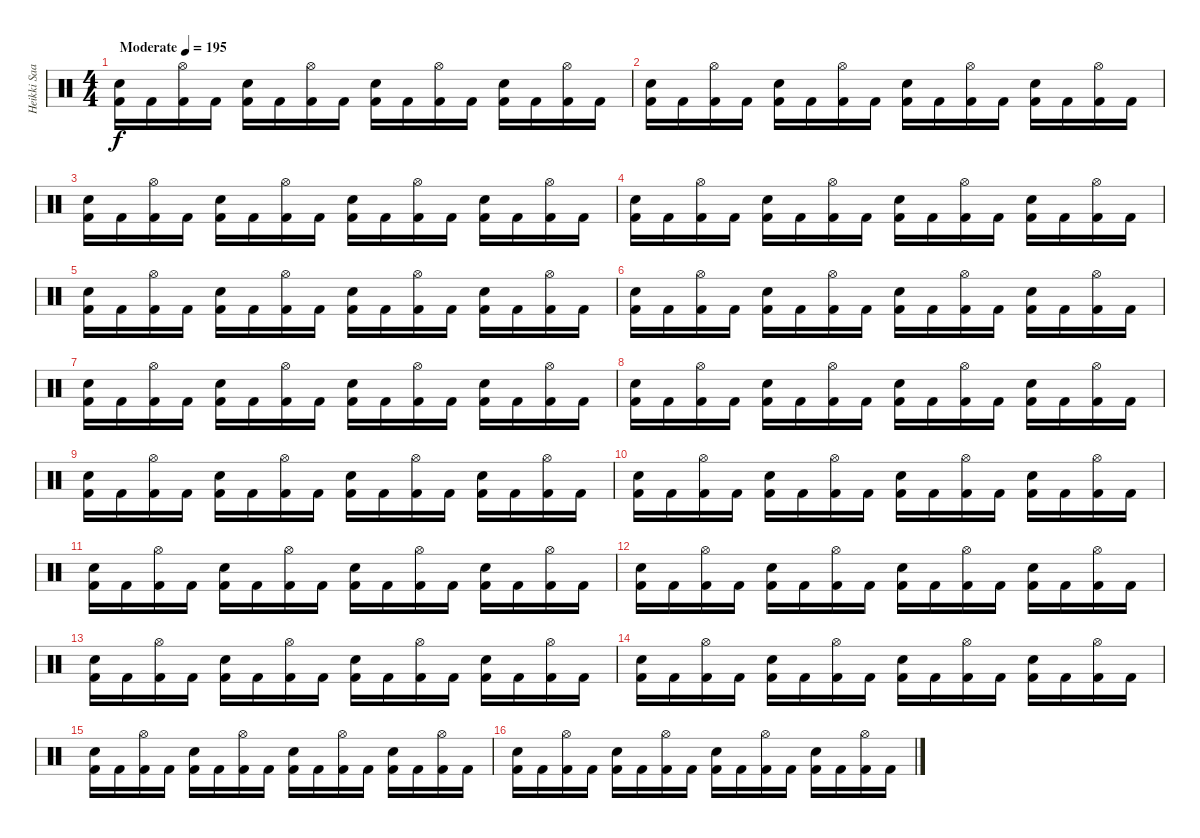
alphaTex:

\track ("Heikki Saari" "Heikki Saa") {instrument percussion}
\staff {score}
\articulation defaults
\ts (4 4)
\tempo (195 "Moderate")
\clef neutral
\ks c
("Snare (hit) 2" "Kick (hit) 2").16{dy f} "Kick (hit) 2".16 ("Hi-Hat (open)" "Kick (hit) 2").16 "Kick (hit) 2".16 ("Snare (hit) 2" "Kick (hit) 2").16 "Kick (hit) 2".16 ("Hi-Hat (open)" "Kick (hit) 2").16 "Kick (hit) 2".16 ("Snare (hit) 2" "Kick (hit) 2").16 "Kick (hit) 2".16 ("Hi-Hat (open)" "Kick (hit) 2").16 "Kick (hit) 2".16 ("Snare (hit) 2" "Kick (hit) 2").16 "Kick (hit) 2".16 ("Hi-Hat (open)" "Kick (hit) 2").16 "Kick (hit) 2".16 |
("Snare (hit) 2" "Kick (hit) 2").16 "Kick (hit) 2".16 ("Hi-Hat (open)" "Kick (hit) 2").16 "Kick (hit) 2".16 ("Snare (hit) 2" "Kick (hit) 2").16 "Kick (hit) 2".16 ("Hi-Hat (open)" "Kick (hit) 2").16 "Kick (hit) 2".16 ("Snare (hit) 2" "Kick (hit) 2").16 "Kick (hit) 2".16 ("Hi-Hat (open)" "Kick (hit) 2").16 "Kick (hit) 2".16 ("Snare (hit) 2" "Kick (hit) 2").16 "Kick (hit) 2".16 ("Hi-Hat (open)" "Kick (hit) 2").16 "Kick (hit) 2".16 |
("Snare (hit) 2" "Kick (hit) 2").16 "Kick (hit) 2".16 ("Hi-Hat (open)" "Kick (hit) 2").16 "Kick (hit) 2".16 ("Snare (hit) 2" "Kick (hit) 2").16 "Kick (hit) 2".16 ("Hi-Hat (open)" "Kick (hit) 2").16 "Kick (hit) 2".16 ("Snare (hit) 2" "Kick (hit) 2").16 "Kick (hit) 2".16 ("Hi-Hat (open)" "Kick (hit) 2").16 "Kick (hit) 2".16 ("Snare (hit) 2" "Kick (hit) 2").16 "Kick (hit) 2".16 ("Hi-Hat (open)" "Kick (hit) 2").16 "Kick (hit) 2".16 |
("Snare (hit) 2" "Kick (hit) 2").16 "Kick (hit) 2".16 ("Hi-Hat (open)" "Kick (hit) 2").16 "Kick (hit) 2".16 ("Snare (hit) 2" "Kick (hit) 2").16 "Kick (hit) 2".16 ("Hi-Hat (open)" "Kick (hit) 2").16 "Kick (hit) 2".16 ("Snare (hit) 2" "Kick (hit) 2").16 "Kick (hit) 2".16 ("Hi-Hat (open)" "Kick (hit) 2").16 "Kick (hit) 2".16 ("Snare (hit) 2" "Kick (hit) 2").16 "Kick (hit) 2".16 ("Hi-Hat (open)" "Kick (hit) 2").16 "Kick (hit) 2".16 |
("Snare (hit) 2" "Kick (hit) 2").16 "Kick (hit) 2".16 ("Hi-Hat (open)" "Kick (hit) 2").16 "Kick (hit) 2".16 ("Snare (hit) 2" "Kick (hit) 2").16 "Kick (hit) 2".16 ("Hi-Hat (open)" "Kick (hit) 2").16 "Kick (hit) 2".16 ("Snare (hit) 2" "Kick (hit) 2").16 "Kick (hit) 2".16 ("Hi-Hat (open)" "Kick (hit) 2").16 "Kick (hit) 2".16 ("Snare (hit) 2" "Kick (hit) 2").16 "Kick (hit) 2".16 ("Hi-Hat (open)" "Kick (hit) 2").16 "Kick (hit) 2".16 |
("Snare (hit) 2" "Kick (hit) 2").16 "Kick (hit) 2".16 ("Hi-Hat (open)" "Kick (hit) 2").16 "Kick (hit) 2".16 ("Snare (hit) 2" "Kick (hit) 2").16 "Kick (hit) 2".16 ("Hi-Hat (open)" "Kick (hit) 2").16 "Kick (hit) 2".16 ("Snare (hit) 2" "Kick (hit) 2").16 "Kick (hit) 2".16 ("Hi-Hat (open)" "Kick (hit) 2").16 "Kick (hit) 2".16 ("Snare (hit) 2" "Kick (hit) 2").16 "Kick (hit) 2".16 ("Hi-Hat (open)" "Kick (hit) 2").16 "Kick (hit) 2".16 |
("Snare (hit) 2" "Kick (hit) 2").16 "Kick (hit) 2".16 ("Hi-Hat (open)" "Kick (hit) 2").16 "Kick (hit) 2".16 ("Snare (hit) 2" "Kick (hit) 2").16 "Kick (hit) 2".16 ("Hi-Hat (open)" "Kick (hit) 2").16 "Kick (hit) 2".16 ("Snare (hit) 2" "Kick (hit) 2").16 "Kick (hit) 2".16 ("Hi-Hat (open)" "Kick (hit) 2").16 "Kick (hit) 2".16 ("Snare (hit) 2" "Kick (hit) 2").16 "Kick (hit) 2".16 ("Hi-Hat (open)" "Kick (hit) 2").16 "Kick (hit) 2".16 |
("Snare (hit) 2" "Kick (hit) 2").16 "Kick (hit) 2".16 ("Hi-Hat (open)" "Kick (hit) 2").16 "Kick (hit) 2".16 ("Snare (hit) 2" "Kick (hit) 2").16 "Kick (hit) 2".16 ("Hi-Hat (open)" "Kick (hit) 2").16 "Kick (hit) 2".16 ("Snare (hit) 2" "Kick (hit) 2").16 "Kick (hit) 2".16 ("Hi-Hat (open)" "Kick (hit) 2").16 "Kick (hit) 2".16 ("Snare (hit) 2" "Kick (hit) 2").16 "Kick (hit) 2".16 ("Hi-Hat (open)" "Kick (hit) 2").16 "Kick (hit) 2".16 |
("Snare (hit) 2" "Kick (hit) 2").16 "Kick (hit) 2".16 ("Hi-Hat (open)" "Kick (hit) 2").16 "Kick (hit) 2".16 ("Snare (hit) 2" "Kick (hit) 2").16 "Kick (hit) 2".16 ("Hi-Hat (open)" "Kick (hit) 2").16 "Kick (hit) 2".16 ("Snare (hit) 2" "Kick (hit) 2").16 "Kick (hit) 2".16 ("Hi-Hat (open)" "Kick (hit) 2").16 "Kick (hit) 2".16 ("Snare (hit) 2" "Kick (hit) 2").16 "Kick (hit) 2".16 ("Hi-Hat (open)" "Kick (hit) 2").16 "Kick (hit) 2".16 |
("Snare (hit) 2" "Kick (hit) 2").16 "Kick (hit) 2".16 ("Hi-Hat (open)" "Kick (hit) 2").16 "Kick (hit) 2".16 ("Snare (hit) 2" "Kick (hit) 2").16 "Kick (hit) 2".16 ("Hi-Hat (open)" "Kick (hit) 2").16 "Kick (hit) 2".16 ("Snare (hit) 2" "Kick (hit) 2").16 "Kick (hit) 2".16 ("Hi-Hat (open)" "Kick (hit) 2").16 "Kick (hit) 2".16 ("Snare (hit) 2" "Kick (hit) 2").16 "Kick (hit) 2".16 ("Hi-Hat (open)" "Kick (hit) 2").16 "Kick (hit) 2".16 |
("Snare (hit) 2" "Kick (hit) 2").16 "Kick (hit) 2".16 ("Hi-Hat (open)" "Kick (hit) 2").16 "Kick (hit) 2".16 ("Snare (hit) 2" "Kick (hit) 2").16 "Kick (hit) 2".16 ("Hi-Hat (open)" "Kick (hit) 2").16 "Kick (hit) 2".16 ("Snare (hit) 2" "Kick (hit) 2").16 "Kick (hit) 2".16 ("Hi-Hat (open)" "Kick (hit) 2").16 "Kick (hit) 2".16 ("Snare (hit) 2" "Kick (hit) 2").16 "Kick (hit) 2".16 ("Hi-Hat (open)" "Kick (hit) 2").16 "Kick (hit) 2".16 |
("Snare (hit) 2" "Kick (hit) 2").16 "Kick (hit) 2".16 ("Hi-Hat (open)" "Kick (hit) 2").16 "Kick (hit) 2".16 ("Snare (hit) 2" "Kick (hit) 2").16 "Kick (hit) 2".16 ("Hi-Hat (open)" "Kick (hit) 2").16 "Kick (hit) 2".16 ("Snare (hit) 2" "Kick (hit) 2").16 "Kick (hit) 2".16 ("Hi-Hat (open)" "Kick (hit) 2").16 "Kick (hit) 2".16 ("Snare (hit) 2" "Kick (hit) 2").16 "Kick (hit) 2".16 ("Hi-Hat (open)" "Kick (hit) 2").16 "Kick (hit) 2".16 |
("Snare (hit) 2" "Kick (hit) 2").16 "Kick (hit) 2".16 ("Hi-Hat (open)" "Kick (hit) 2").16 "Kick (hit) 2".16 ("Snare (hit) 2" "Kick (hit) 2").16 "Kick (hit) 2".16 ("Hi-Hat (open)" "Kick (hit) 2").16 "Kick (hit) 2".16 ("Snare (hit) 2" "Kick (hit) 2").16 "Kick (hit) 2".16 ("Hi-Hat (open)" "Kick (hit) 2").16 "Kick (hit) 2".16 ("Snare (hit) 2" "Kick (hit) 2").16 "Kick (hit) 2".16 ("Hi-Hat (open)" "Kick (hit) 2").16 "Kick (hit) 2".16 |
("Snare (hit) 2" "Kick (hit) 2").16 "Kick (hit) 2".16 ("Hi-Hat (open)" "Kick (hit) 2").16 "Kick (hit) 2".16 ("Snare (hit) 2" "Kick (hit) 2").16 "Kick (hit) 2".16 ("Hi-Hat (open)" "Kick (hit) 2").16 "Kick (hit) 2".16 ("Snare (hit) 2" "Kick (hit) 2").16 "Kick (hit) 2".16 ("Hi-Hat (open)" "Kick (hit) 2").16 "Kick (hit) 2".16 ("Snare (hit) 2" "Kick (hit) 2").16 "Kick (hit) 2".16 ("Hi-Hat (open)" "Kick (hit) 2").16 "Kick (hit) 2".16 |
("Snare (hit) 2" "Kick (hit) 2").16 "Kick (hit) 2".16 ("Hi-Hat (open)" "Kick (hit) 2").16 "Kick (hit) 2".16 ("Snare (hit) 2" "Kick (hit) 2").16 "Kick (hit) 2".16 ("Hi-Hat (open)" "Kick (hit) 2").16 "Kick (hit) 2".16 ("Snare (hit) 2" "Kick (hit) 2").16 "Kick (hit) 2".16 ("Hi-Hat (open)" "Kick (hit) 2").16 "Kick (hit) 2".16 ("Snare (hit) 2" "Kick (hit) 2").16 "Kick (hit) 2".16 ("Hi-Hat (open)" "Kick (hit) 2").16 "Kick (hit) 2".16 |
("Snare (hit) 2" "Kick (hit) 2").16 "Kick (hit) 2".16 ("Hi-Hat (open)" "Kick (hit) 2").16 "Kick (hit) 2".16 ("Snare (hit) 2" "Kick (hit) 2").16 "Kick (hit) 2".16 ("Hi-Hat (open)" "Kick (hit) 2").16 "Kick (hit) 2".16 ("Snare (hit) 2" "Kick (hit) 2").16 "Kick (hit) 2".16 ("Hi-Hat (open)" "Kick (hit) 2").16 "Kick (hit) 2".16 ("Snare (hit) 2" "Kick (hit) 2").16 "Kick (hit) 2".16 ("Hi-Hat (open)" "Kick (hit) 2").16 "Kick (hit) 2".16
